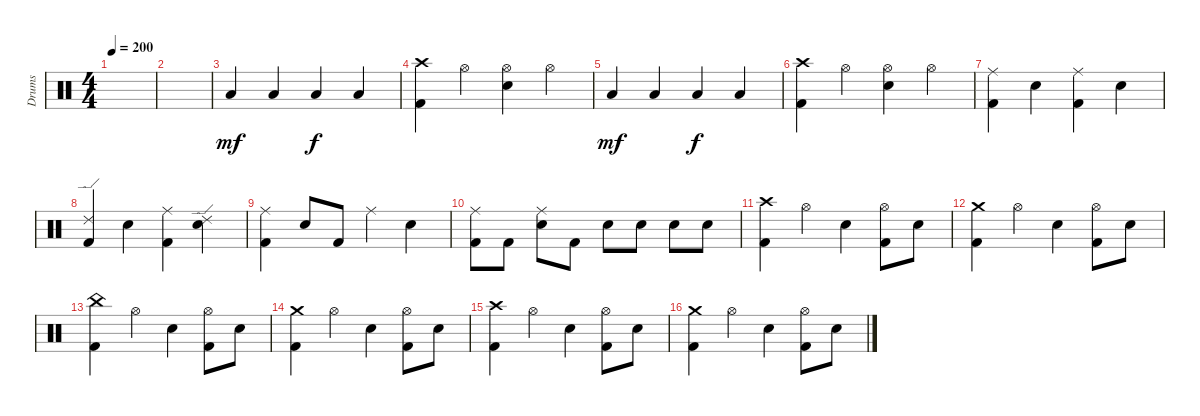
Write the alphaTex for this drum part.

\track ("Drums" "Drums") {instrument percussion}
\staff {score}
\articulation defaults
\ts (4 4)
\tempo 200
\clef neutral
\ks c
|
|
"Low Tom (hit)".4{dy mf} "Low Tom (hit)".4 "Low Tom (hit)".4{dy f} "Low Tom (hit)".4 |
("Crash high (hit)" "Kick (hit) 2").4 "Hi-Hat (open)".4 ("Hi-Hat (open)" "Electric Snare (hit)").4 "Hi-Hat (open)".4 |
"Low Tom (hit)".4{dy mf} "Low Tom (hit)".4 "Low Tom (hit)".4{dy f} "Low Tom (hit)".4 |
("Crash high (hit)" "Kick (hit) 2").4 "Hi-Hat (open)".4 ("Hi-Hat (open)" "Electric Snare (hit)").4 "Hi-Hat (open)".4 |
("Ride (middle)" "Kick (hit) 2").4 "Electric Snare (hit)".4 ("Ride (middle)" "Kick (hit) 2").4 "Electric Snare (hit)".4 |
("Ride (edge) 2" "Kick (hit) 2").4 "Electric Snare (hit)".4 ("Ride (middle)" "Kick (hit) 2").4 ("Ride (edge) 2" "Electric Snare (hit)").4 |
("Ride (middle)" "Kick (hit) 2").4 "Electric Snare (hit)".8 "Kick (hit) 2".8 "Ride (middle)".4 "Electric Snare (hit)".4 |
("Ride (middle)" "Kick (hit) 2").8 "Kick (hit) 2".8 ("Ride (middle)" "Electric Snare (hit)").8 "Kick (hit) 2".8 "Electric Snare (hit)".8 "Electric Snare (hit)".8 "Electric Snare (hit)".8 "Electric Snare (hit)".8 |
("Crash high (hit)" "Kick (hit) 2").4 "Hi-Hat (open)".4 "Electric Snare (hit)".4 ("Hi-Hat (open)" "Kick (hit) 2").8 "Electric Snare (hit)".8 |
("Crash medium (hit)" "Kick (hit) 2").4 "Hi-Hat (open)".4 "Electric Snare (hit)".4 ("Hi-Hat (open)" "Kick (hit) 2").8 "Electric Snare (hit)".8 |
("China (hit)" "Kick (hit) 2").4 "Hi-Hat (open)".4 "Electric Snare (hit)".4 ("Hi-Hat (open)" "Kick (hit) 2").8 "Electric Snare (hit)".8 |
("Crash medium (hit)" "Kick (hit) 2").4 "Hi-Hat (open)".4 "Electric Snare (hit)".4 ("Hi-Hat (open)" "Kick (hit) 2").8 "Electric Snare (hit)".8 |
("Crash high (hit)" "Kick (hit) 2").4 "Hi-Hat (open)".4 "Electric Snare (hit)".4 ("Hi-Hat (open)" "Kick (hit) 2").8 "Electric Snare (hit)".8 |
("Crash medium (hit)" "Kick (hit) 2").4 "Hi-Hat (open)".4 "Electric Snare (hit)".4 ("Hi-Hat (open)" "Kick (hit) 2").8 "Electric Snare (hit)".8
